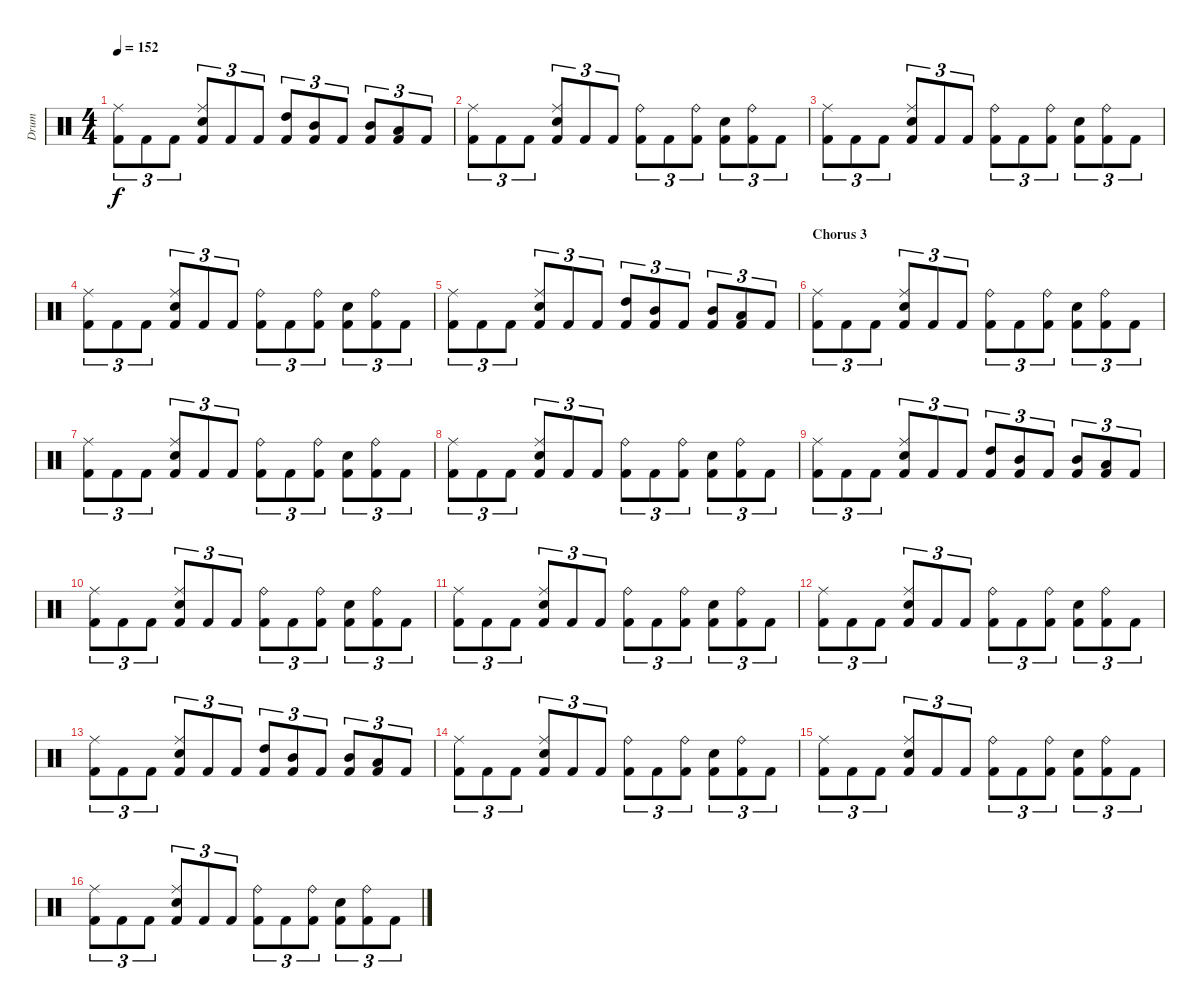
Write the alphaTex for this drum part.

\track ("Drum" "Drum") {instrument percussion}
\staff {score}
\articulation defaults
\ts (4 4)
\tempo 152
\clef neutral
\ks c
("Kick (hit) 2" "Ride (middle)").8{tu (3 2) dy f} "Kick (hit) 2".8{tu (3 2)} "Kick (hit) 2".8{tu (3 2)} ("Electric Snare (hit)" "Ride (middle)" "Kick (hit) 2").8{tu (3 2)} "Kick (hit) 2".8{tu (3 2)} "Kick (hit) 2".8{tu (3 2)} ("Kick (hit) 2" "High Tom (hit)").8{tu (3 2)} ("Mid Tom (hit)" "Kick (hit) 2").8{tu (3 2)} "Kick (hit) 2".8{tu (3 2)} ("Mid Tom (hit)" "Kick (hit) 2").8{tu (3 2)} ("Low Tom (hit)" "Kick (hit) 2").8{tu (3 2)} "Kick (hit) 2".8{tu (3 2)} |
("Kick (hit) 2" "Ride (middle)").8{tu (3 2)} "Kick (hit) 2".8{tu (3 2)} "Kick (hit) 2".8{tu (3 2)} ("Electric Snare (hit)" "Kick (hit) 2" "Ride (middle)").8{tu (3 2)} "Kick (hit) 2".8{tu (3 2)} "Kick (hit) 2".8{tu (3 2)} ("Kick (hit) 2" "Ride (bell)").8{tu (3 2)} "Kick (hit) 2".8{tu (3 2)} ("Kick (hit) 2" "Ride (bell)").8{tu (3 2)} ("Electric Snare (hit)" "Kick (hit) 2").8{tu (3 2)} ("Kick (hit) 2" "Ride (bell)").8{tu (3 2)} "Kick (hit) 2".8{tu (3 2)} |
("Kick (hit) 2" "Ride (middle)").8{tu (3 2)} "Kick (hit) 2".8{tu (3 2)} "Kick (hit) 2".8{tu (3 2)} ("Ride (middle)" "Electric Snare (hit)" "Kick (hit) 2").8{tu (3 2)} "Kick (hit) 2".8{tu (3 2)} "Kick (hit) 2".8{tu (3 2)} ("Kick (hit) 2" "Ride (bell)").8{tu (3 2)} "Kick (hit) 2".8{tu (3 2)} ("Kick (hit) 2" "Ride (bell)").8{tu (3 2)} ("Electric Snare (hit)" "Kick (hit) 2").8{tu (3 2)} ("Kick (hit) 2" "Ride (bell)").8{tu (3 2)} "Kick (hit) 2".8{tu (3 2)} |
("Ride (middle)" "Kick (hit) 2").8{tu (3 2)} "Kick (hit) 2".8{tu (3 2)} "Kick (hit) 2".8{tu (3 2)} ("Kick (hit) 2" "Ride (middle)" "Electric Snare (hit)").8{tu (3 2)} "Kick (hit) 2".8{tu (3 2)} "Kick (hit) 2".8{tu (3 2)} ("Kick (hit) 2" "Ride (bell)").8{tu (3 2)} "Kick (hit) 2".8{tu (3 2)} ("Kick (hit) 2" "Ride (bell)").8{tu (3 2)} ("Electric Snare (hit)" "Kick (hit) 2").8{tu (3 2)} ("Kick (hit) 2" "Ride (bell)").8{tu (3 2)} "Kick (hit) 2".8{tu (3 2)} |
("Kick (hit) 2" "Ride (middle)").8{tu (3 2)} "Kick (hit) 2".8{tu (3 2)} "Kick (hit) 2".8{tu (3 2)} ("Electric Snare (hit)" "Kick (hit) 2" "Ride (middle)").8{tu (3 2)} "Kick (hit) 2".8{tu (3 2)} "Kick (hit) 2".8{tu (3 2)} ("High Tom (hit)" "Kick (hit) 2").8{tu (3 2)} ("Mid Tom (hit)" "Kick (hit) 2").8{tu (3 2)} "Kick (hit) 2".8{tu (3 2)} ("Kick (hit) 2" "Mid Tom (hit)").8{tu (3 2)} ("Low Tom (hit)" "Kick (hit) 2").8{tu (3 2)} "Kick (hit) 2".8{tu (3 2)} |
\section ("" "Chorus 3")
("Kick (hit) 2" "Ride (middle)").8{tu (3 2)} "Kick (hit) 2".8{tu (3 2)} "Kick (hit) 2".8{tu (3 2)} ("Electric Snare (hit)" "Kick (hit) 2" "Ride (middle)").8{tu (3 2)} "Kick (hit) 2".8{tu (3 2)} "Kick (hit) 2".8{tu (3 2)} ("Kick (hit) 2" "Ride (bell)").8{tu (3 2)} "Kick (hit) 2".8{tu (3 2)} ("Kick (hit) 2" "Ride (bell)").8{tu (3 2)} ("Electric Snare (hit)" "Kick (hit) 2").8{tu (3 2)} ("Kick (hit) 2" "Ride (bell)").8{tu (3 2)} "Kick (hit) 2".8{tu (3 2)} |
("Kick (hit) 2" "Ride (middle)").8{tu (3 2)} "Kick (hit) 2".8{tu (3 2)} "Kick (hit) 2".8{tu (3 2)} ("Ride (middle)" "Electric Snare (hit)" "Kick (hit) 2").8{tu (3 2)} "Kick (hit) 2".8{tu (3 2)} "Kick (hit) 2".8{tu (3 2)} ("Kick (hit) 2" "Ride (bell)").8{tu (3 2)} "Kick (hit) 2".8{tu (3 2)} ("Kick (hit) 2" "Ride (bell)").8{tu (3 2)} ("Electric Snare (hit)" "Kick (hit) 2").8{tu (3 2)} ("Kick (hit) 2" "Ride (bell)").8{tu (3 2)} "Kick (hit) 2".8{tu (3 2)} |
("Kick (hit) 2" "Ride (middle)").8{tu (3 2)} "Kick (hit) 2".8{tu (3 2)} "Kick (hit) 2".8{tu (3 2)} ("Electric Snare (hit)" "Ride (middle)" "Kick (hit) 2").8{tu (3 2)} "Kick (hit) 2".8{tu (3 2)} "Kick (hit) 2".8{tu (3 2)} ("Kick (hit) 2" "Ride (bell)").8{tu (3 2)} "Kick (hit) 2".8{tu (3 2)} ("Kick (hit) 2" "Ride (bell)").8{tu (3 2)} ("Electric Snare (hit)" "Kick (hit) 2").8{tu (3 2)} ("Kick (hit) 2" "Ride (bell)").8{tu (3 2)} "Kick (hit) 2".8{tu (3 2)} |
("Kick (hit) 2" "Ride (middle)").8{tu (3 2)} "Kick (hit) 2".8{tu (3 2)} "Kick (hit) 2".8{tu (3 2)} ("Kick (hit) 2" "Ride (middle)" "Electric Snare (hit)").8{tu (3 2)} "Kick (hit) 2".8{tu (3 2)} "Kick (hit) 2".8{tu (3 2)} ("Kick (hit) 2" "High Tom (hit)").8{tu (3 2)} ("Kick (hit) 2" "Mid Tom (hit)").8{tu (3 2)} "Kick (hit) 2".8{tu (3 2)} ("Mid Tom (hit)" "Kick (hit) 2").8{tu (3 2)} ("Kick (hit) 2" "Low Tom (hit)").8{tu (3 2)} "Kick (hit) 2".8{tu (3 2)} |
("Ride (middle)" "Kick (hit) 2").8{tu (3 2)} "Kick (hit) 2".8{tu (3 2)} "Kick (hit) 2".8{tu (3 2)} ("Ride (middle)" "Electric Snare (hit)" "Kick (hit) 2").8{tu (3 2)} "Kick (hit) 2".8{tu (3 2)} "Kick (hit) 2".8{tu (3 2)} ("Kick (hit) 2" "Ride (bell)").8{tu (3 2)} "Kick (hit) 2".8{tu (3 2)} ("Kick (hit) 2" "Ride (bell)").8{tu (3 2)} ("Electric Snare (hit)" "Kick (hit) 2").8{tu (3 2)} ("Kick (hit) 2" "Ride (bell)").8{tu (3 2)} "Kick (hit) 2".8{tu (3 2)} |
("Ride (middle)" "Kick (hit) 2").8{tu (3 2)} "Kick (hit) 2".8{tu (3 2)} "Kick (hit) 2".8{tu (3 2)} ("Electric Snare (hit)" "Ride (middle)" "Kick (hit) 2").8{tu (3 2)} "Kick (hit) 2".8{tu (3 2)} "Kick (hit) 2".8{tu (3 2)} ("Kick (hit) 2" "Ride (bell)").8{tu (3 2)} "Kick (hit) 2".8{tu (3 2)} ("Kick (hit) 2" "Ride (bell)").8{tu (3 2)} ("Electric Snare (hit)" "Kick (hit) 2").8{tu (3 2)} ("Kick (hit) 2" "Ride (bell)").8{tu (3 2)} "Kick (hit) 2".8{tu (3 2)} |
("Ride (middle)" "Kick (hit) 2").8{tu (3 2)} "Kick (hit) 2".8{tu (3 2)} "Kick (hit) 2".8{tu (3 2)} ("Electric Snare (hit)" "Ride (middle)" "Kick (hit) 2").8{tu (3 2)} "Kick (hit) 2".8{tu (3 2)} "Kick (hit) 2".8{tu (3 2)} ("Kick (hit) 2" "Ride (bell)").8{tu (3 2)} "Kick (hit) 2".8{tu (3 2)} ("Kick (hit) 2" "Ride (bell)").8{tu (3 2)} ("Electric Snare (hit)" "Kick (hit) 2").8{tu (3 2)} ("Kick (hit) 2" "Ride (bell)").8{tu (3 2)} "Kick (hit) 2".8{tu (3 2)} |
("Kick (hit) 2" "Ride (middle)").8{tu (3 2)} "Kick (hit) 2".8{tu (3 2)} "Kick (hit) 2".8{tu (3 2)} ("Electric Snare (hit)" "Kick (hit) 2" "Ride (middle)").8{tu (3 2)} "Kick (hit) 2".8{tu (3 2)} "Kick (hit) 2".8{tu (3 2)} ("High Tom (hit)" "Kick (hit) 2").8{tu (3 2)} ("Kick (hit) 2" "Mid Tom (hit)").8{tu (3 2)} "Kick (hit) 2".8{tu (3 2)} ("Kick (hit) 2" "Mid Tom (hit)").8{tu (3 2)} ("Kick (hit) 2" "Low Tom (hit)").8{tu (3 2)} "Kick (hit) 2".8{tu (3 2)} |
("Kick (hit) 2" "Ride (middle)").8{tu (3 2)} "Kick (hit) 2".8{tu (3 2)} "Kick (hit) 2".8{tu (3 2)} ("Electric Snare (hit)" "Ride (middle)" "Kick (hit) 2").8{tu (3 2)} "Kick (hit) 2".8{tu (3 2)} "Kick (hit) 2".8{tu (3 2)} ("Kick (hit) 2" "Ride (bell)").8{tu (3 2)} "Kick (hit) 2".8{tu (3 2)} ("Kick (hit) 2" "Ride (bell)").8{tu (3 2)} ("Electric Snare (hit)" "Kick (hit) 2").8{tu (3 2)} ("Kick (hit) 2" "Ride (bell)").8{tu (3 2)} "Kick (hit) 2".8{tu (3 2)} |
("Kick (hit) 2" "Ride (middle)").8{tu (3 2)} "Kick (hit) 2".8{tu (3 2)} "Kick (hit) 2".8{tu (3 2)} ("Ride (middle)" "Kick (hit) 2" "Electric Snare (hit)").8{tu (3 2)} "Kick (hit) 2".8{tu (3 2)} "Kick (hit) 2".8{tu (3 2)} ("Kick (hit) 2" "Ride (bell)").8{tu (3 2)} "Kick (hit) 2".8{tu (3 2)} ("Kick (hit) 2" "Ride (bell)").8{tu (3 2)} ("Electric Snare (hit)" "Kick (hit) 2").8{tu (3 2)} ("Kick (hit) 2" "Ride (bell)").8{tu (3 2)} "Kick (hit) 2".8{tu (3 2)} |
("Kick (hit) 2" "Ride (middle)").8{tu (3 2)} "Kick (hit) 2".8{tu (3 2)} "Kick (hit) 2".8{tu (3 2)} ("Ride (middle)" "Electric Snare (hit)" "Kick (hit) 2").8{tu (3 2)} "Kick (hit) 2".8{tu (3 2)} "Kick (hit) 2".8{tu (3 2)} ("Kick (hit) 2" "Ride (bell)").8{tu (3 2)} "Kick (hit) 2".8{tu (3 2)} ("Kick (hit) 2" "Ride (bell)").8{tu (3 2)} ("Electric Snare (hit)" "Kick (hit) 2").8{tu (3 2)} ("Kick (hit) 2" "Ride (bell)").8{tu (3 2)} "Kick (hit) 2".8{tu (3 2)}
